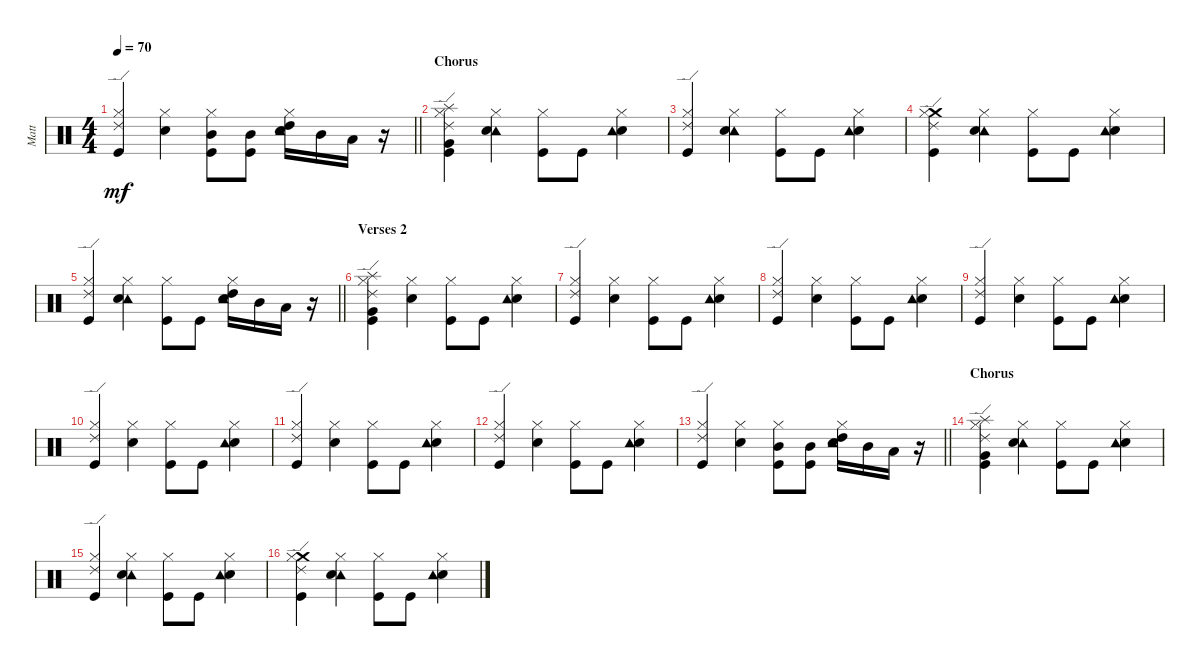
\track ("Matt" "Matt") {instrument percussion}
\staff {score}
\articulation defaults
\ts (4 4)
\tempo 70
\clef neutral
\barLineRight lightlight
\ks c
("Ride (edge) 2" "Hi-Hat (closed)" "Kick (hit)").4{dy mf} ("Hi-Hat (closed)" "Electric Snare (hit)").4 ("Mid Tom (hit)" "Hi-Hat (closed)" "Kick (hit)").8 ("Mid Tom (hit)" "Kick (hit)").8 ("Electric Snare (hit)" "High Tom (hit)" "Tambourine (hit)" "Hi-Hat (closed)").16 "Mid Tom (hit)".16 "Low Tom (hit)".16 r.16 |
\section ("" "Chorus")
("Splash (hit)" "Very Low Tom (hit)" "Ride (edge) 2" "Hi-Hat (closed)" "Kick (hit)").4 ("Tambourine (hit)" "Hi-Hat (closed)" "Electric Snare (hit)").4 ("Hi-Hat (closed)" "Kick (hit)").8 "Kick (hit)".8 ("Electric Snare (hit)" "Tambourine (hit)" "Hi-Hat (closed)").4 |
("Ride (edge) 2" "Hi-Hat (closed)" "Kick (hit)").4 ("Tambourine (hit)" "Hi-Hat (closed)" "Electric Snare (hit)").4 ("Hi-Hat (closed)" "Kick (hit)").8 "Kick (hit)".8 ("Electric Snare (hit)" "Tambourine (hit)" "Hi-Hat (closed)").4 |
("Crash medium (hit)" "Ride (edge) 2" "Hi-Hat (closed)" "Kick (hit)").4 ("Tambourine (hit)" "Hi-Hat (closed)" "Electric Snare (hit)").4 ("Hi-Hat (closed)" "Kick (hit)").8 "Kick (hit)".8 ("Electric Snare (hit)" "Tambourine (hit)" "Hi-Hat (closed)").4 |
\barLineRight lightlight
("Ride (edge) 2" "Hi-Hat (closed)" "Kick (hit)").4 ("Tambourine (hit)" "Hi-Hat (closed)" "Electric Snare (hit)").4 ("Hi-Hat (closed)" "Kick (hit)").8 "Kick (hit)".8 ("Electric Snare (hit)" "High Tom (hit)" "Tambourine (hit)" "Hi-Hat (closed)").16 "Mid Tom (hit)".16 "Low Tom (hit)".16 r.16 |
\section ("" "Verses 2")
("Splash (hit)" "Very Low Tom (hit)" "Ride (edge) 2" "Hi-Hat (closed)" "Kick (hit)").4 ("Hi-Hat (closed)" "Electric Snare (hit)").4 ("Hi-Hat (closed)" "Kick (hit)").8 "Kick (hit)".8 ("Electric Snare (hit)" "Tambourine (hit)" "Hi-Hat (closed)").4 |
("Ride (edge) 2" "Hi-Hat (closed)" "Kick (hit)").4 ("Hi-Hat (closed)" "Electric Snare (hit)").4 ("Hi-Hat (closed)" "Kick (hit)").8 "Kick (hit)".8 ("Electric Snare (hit)" "Tambourine (hit)" "Hi-Hat (closed)").4 |
("Ride (edge) 2" "Hi-Hat (closed)" "Kick (hit)").4 ("Hi-Hat (closed)" "Electric Snare (hit)").4 ("Hi-Hat (closed)" "Kick (hit)").8 "Kick (hit)".8 ("Electric Snare (hit)" "Tambourine (hit)" "Hi-Hat (closed)").4 |
("Ride (edge) 2" "Hi-Hat (closed)" "Kick (hit)").4 ("Hi-Hat (closed)" "Electric Snare (hit)").4 ("Hi-Hat (closed)" "Kick (hit)").8 "Kick (hit)".8 ("Electric Snare (hit)" "Tambourine (hit)" "Hi-Hat (closed)").4 |
("Ride (edge) 2" "Hi-Hat (closed)" "Kick (hit)").4 ("Hi-Hat (closed)" "Electric Snare (hit)").4 ("Hi-Hat (closed)" "Kick (hit)").8 "Kick (hit)".8 ("Electric Snare (hit)" "Tambourine (hit)" "Hi-Hat (closed)").4 |
("Ride (edge) 2" "Hi-Hat (closed)" "Kick (hit)").4 ("Hi-Hat (closed)" "Electric Snare (hit)").4 ("Hi-Hat (closed)" "Kick (hit)").8 "Kick (hit)".8 ("Electric Snare (hit)" "Tambourine (hit)" "Hi-Hat (closed)").4 |
("Ride (edge) 2" "Hi-Hat (closed)" "Kick (hit)").4 ("Hi-Hat (closed)" "Electric Snare (hit)").4 ("Hi-Hat (closed)" "Kick (hit)").8 "Kick (hit)".8 ("Electric Snare (hit)" "Tambourine (hit)" "Hi-Hat (closed)").4 |
\barLineRight lightlight
("Ride (edge) 2" "Hi-Hat (closed)" "Kick (hit)").4 ("Hi-Hat (closed)" "Electric Snare (hit)").4 ("Mid Tom (hit)" "Hi-Hat (closed)" "Kick (hit)").8 ("Mid Tom (hit)" "Kick (hit)").8 ("Electric Snare (hit)" "High Tom (hit)" "Tambourine (hit)" "Hi-Hat (closed)").16 "Mid Tom (hit)".16 "Low Tom (hit)".16 r.16 |
\section ("" "Chorus")
("Splash (hit)" "Very Low Tom (hit)" "Ride (edge) 2" "Hi-Hat (closed)" "Kick (hit)").4 ("Tambourine (hit)" "Hi-Hat (closed)" "Electric Snare (hit)").4 ("Hi-Hat (closed)" "Kick (hit)").8 "Kick (hit)".8 ("Electric Snare (hit)" "Tambourine (hit)" "Hi-Hat (closed)").4 |
("Ride (edge) 2" "Hi-Hat (closed)" "Kick (hit)").4 ("Tambourine (hit)" "Hi-Hat (closed)" "Electric Snare (hit)").4 ("Hi-Hat (closed)" "Kick (hit)").8 "Kick (hit)".8 ("Electric Snare (hit)" "Tambourine (hit)" "Hi-Hat (closed)").4 |
("Crash medium (hit)" "Ride (edge) 2" "Hi-Hat (closed)" "Kick (hit)").4 ("Tambourine (hit)" "Hi-Hat (closed)" "Electric Snare (hit)").4 ("Hi-Hat (closed)" "Kick (hit)").8 "Kick (hit)".8 ("Electric Snare (hit)" "Tambourine (hit)" "Hi-Hat (closed)").4
